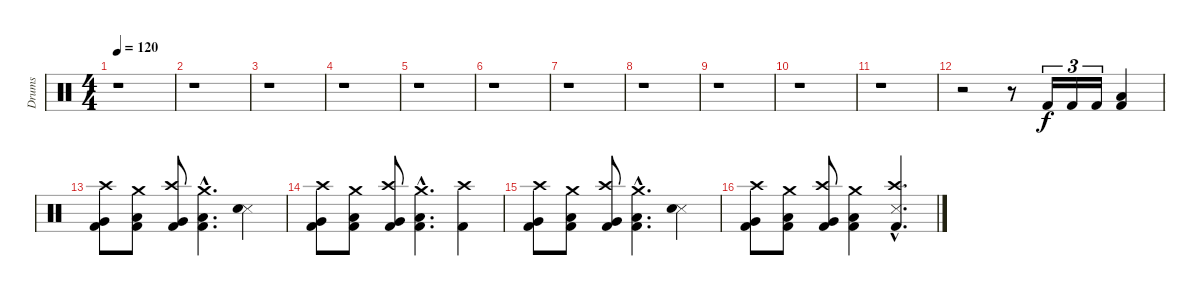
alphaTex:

\track ("Drums" "Drums") {instrument percussion}
\staff {score}
\articulation defaults
\ts (4 4)
\tempo 120
\clef neutral
\ks c
r.1{dy f} |
r.1 |
r.1 |
r.1 |
r.1 |
r.1 |
r.1 |
r.1 |
r.1 |
r.1 |
r.1 |
r.2 r.8 "Kick (hit) 2".16{tu (3 2)} "Kick (hit) 2".16{tu (3 2)} "Kick (hit) 2".16{tu (3 2)} ("Low Floor Tom (hit)" "Kick (hit) 2").4 |
("Crash high (hit)" "Very Low Tom (hit)" "Kick (hit) 2").8 ("Crash medium (hit)" "Low Floor Tom (hit)" "Kick (hit) 2").8 ("Crash high (hit)" "Very Low Tom (hit)" "Kick (hit) 2").8 ("Crash medium (hit)"{hac} "Low Floor Tom (hit)"{hac} "Kick (hit) 2"{hac}).4{d} ("Snare (side stick) 3" "Electric Snare (hit)").4 |
("Crash high (hit)" "Very Low Tom (hit)" "Kick (hit) 2").8 ("Crash medium (hit)" "Low Floor Tom (hit)" "Kick (hit) 2").8 ("Crash high (hit)" "Very Low Tom (hit)" "Kick (hit) 2").8 ("Crash medium (hit)"{hac} "Low Floor Tom (hit)"{hac} "Kick (hit) 2"{hac}).4{d} ("Crash high (hit)" "Kick (hit) 2").4 |
("Crash high (hit)" "Very Low Tom (hit)" "Kick (hit) 2").8 ("Crash medium (hit)" "Low Floor Tom (hit)" "Kick (hit) 2").8 ("Crash high (hit)" "Very Low Tom (hit)" "Kick (hit) 2").8 ("Crash medium (hit)"{hac} "Low Floor Tom (hit)"{hac} "Kick (hit) 2"{hac}).4{d} ("Snare (side stick) 3" "Electric Snare (hit)").4 |
("Crash high (hit)" "Very Low Tom (hit)" "Kick (hit) 2").8 ("Crash medium (hit)" "Low Floor Tom (hit)" "Kick (hit) 2").8 ("Crash high (hit)" "Very Low Tom (hit)" "Kick (hit) 2").8 ("Crash medium (hit)" "Low Floor Tom (hit)" "Kick (hit) 2").4 ("Crash high (hit)"{hac} "Snare (side stick) 3"{hac} "Kick (hit) 2"{hac}).4{d}
